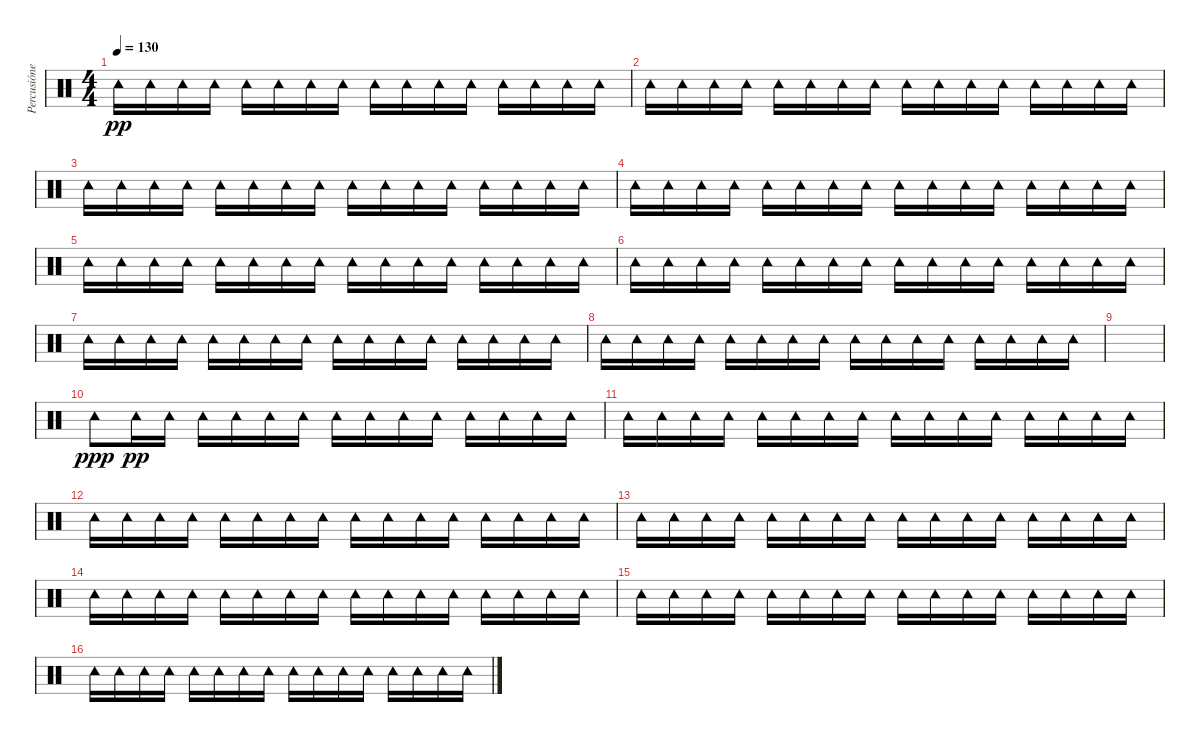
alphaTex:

\track ("Percusiónes" "Percusióne") {instrument percussion}
\staff {score}
\articulation defaults
\ts (4 4)
\tempo 130
\clef neutral
\ks c "Tambourine (hit)".16{dy pp} "Tambourine (hit)".16 "Tambourine (hit)".16 "Tambourine (hit)".16 "Tambourine (hit)".16 "Tambourine (hit)".16 "Tambourine (hit)".16 "Tambourine (hit)".16 "Tambourine (hit)".16 "Tambourine (hit)".16 "Tambourine (hit)".16 "Tambourine (hit)".16 "Tambourine (hit)".16 "Tambourine (hit)".16 "Tambourine (hit)".16 "Tambourine (hit)".16
|
"Tambourine (hit)".16 "Tambourine (hit)".16 "Tambourine (hit)".16 "Tambourine (hit)".16 "Tambourine (hit)".16 "Tambourine (hit)".16 "Tambourine (hit)".16 "Tambourine (hit)".16 "Tambourine (hit)".16 "Tambourine (hit)".16 "Tambourine (hit)".16 "Tambourine (hit)".16 "Tambourine (hit)".16 "Tambourine (hit)".16 "Tambourine (hit)".16 "Tambourine (hit)".16 |
"Tambourine (hit)".16 "Tambourine (hit)".16 "Tambourine (hit)".16 "Tambourine (hit)".16 "Tambourine (hit)".16 "Tambourine (hit)".16 "Tambourine (hit)".16 "Tambourine (hit)".16 "Tambourine (hit)".16 "Tambourine (hit)".16 "Tambourine (hit)".16 "Tambourine (hit)".16 "Tambourine (hit)".16 "Tambourine (hit)".16 "Tambourine (hit)".16 "Tambourine (hit)".16 |
"Tambourine (hit)".16 "Tambourine (hit)".16 "Tambourine (hit)".16 "Tambourine (hit)".16 "Tambourine (hit)".16 "Tambourine (hit)".16 "Tambourine (hit)".16 "Tambourine (hit)".16 "Tambourine (hit)".16 "Tambourine (hit)".16 "Tambourine (hit)".16 "Tambourine (hit)".16 "Tambourine (hit)".16 "Tambourine (hit)".16 "Tambourine (hit)".16 "Tambourine (hit)".16 |
"Tambourine (hit)".16 "Tambourine (hit)".16 "Tambourine (hit)".16 "Tambourine (hit)".16 "Tambourine (hit)".16 "Tambourine (hit)".16 "Tambourine (hit)".16 "Tambourine (hit)".16 "Tambourine (hit)".16 "Tambourine (hit)".16 "Tambourine (hit)".16 "Tambourine (hit)".16 "Tambourine (hit)".16 "Tambourine (hit)".16 "Tambourine (hit)".16 "Tambourine (hit)".16 |
"Tambourine (hit)".16 "Tambourine (hit)".16 "Tambourine (hit)".16 "Tambourine (hit)".16 "Tambourine (hit)".16 "Tambourine (hit)".16 "Tambourine (hit)".16 "Tambourine (hit)".16 "Tambourine (hit)".16 "Tambourine (hit)".16 "Tambourine (hit)".16 "Tambourine (hit)".16 "Tambourine (hit)".16 "Tambourine (hit)".16 "Tambourine (hit)".16 "Tambourine (hit)".16 |
"Tambourine (hit)".16 "Tambourine (hit)".16 "Tambourine (hit)".16 "Tambourine (hit)".16 "Tambourine (hit)".16 "Tambourine (hit)".16 "Tambourine (hit)".16 "Tambourine (hit)".16 "Tambourine (hit)".16 "Tambourine (hit)".16 "Tambourine (hit)".16 "Tambourine (hit)".16 "Tambourine (hit)".16 "Tambourine (hit)".16 "Tambourine (hit)".16 "Tambourine (hit)".16 |
"Tambourine (hit)".16 "Tambourine (hit)".16 "Tambourine (hit)".16 "Tambourine (hit)".16 "Tambourine (hit)".16 "Tambourine (hit)".16 "Tambourine (hit)".16 "Tambourine (hit)".16 "Tambourine (hit)".16 "Tambourine (hit)".16 "Tambourine (hit)".16 "Tambourine (hit)".16 "Tambourine (hit)".16 "Tambourine (hit)".16 "Tambourine (hit)".16 "Tambourine (hit)".16 |
|
"Tambourine (hit)".8{dy ppp} "Tambourine (hit)".16{dy pp} "Tambourine (hit)".16 "Tambourine (hit)".16 "Tambourine (hit)".16 "Tambourine (hit)".16 "Tambourine (hit)".16 "Tambourine (hit)".16 "Tambourine (hit)".16 "Tambourine (hit)".16 "Tambourine (hit)".16 "Tambourine (hit)".16 "Tambourine (hit)".16 "Tambourine (hit)".16 "Tambourine (hit)".16 |
"Tambourine (hit)".16 "Tambourine (hit)".16 "Tambourine (hit)".16 "Tambourine (hit)".16 "Tambourine (hit)".16 "Tambourine (hit)".16 "Tambourine (hit)".16 "Tambourine (hit)".16 "Tambourine (hit)".16 "Tambourine (hit)".16 "Tambourine (hit)".16 "Tambourine (hit)".16 "Tambourine (hit)".16 "Tambourine (hit)".16 "Tambourine (hit)".16 "Tambourine (hit)".16 |
"Tambourine (hit)".16 "Tambourine (hit)".16 "Tambourine (hit)".16 "Tambourine (hit)".16 "Tambourine (hit)".16 "Tambourine (hit)".16 "Tambourine (hit)".16 "Tambourine (hit)".16 "Tambourine (hit)".16 "Tambourine (hit)".16 "Tambourine (hit)".16 "Tambourine (hit)".16 "Tambourine (hit)".16 "Tambourine (hit)".16 "Tambourine (hit)".16 "Tambourine (hit)".16 |
"Tambourine (hit)".16 "Tambourine (hit)".16 "Tambourine (hit)".16 "Tambourine (hit)".16 "Tambourine (hit)".16 "Tambourine (hit)".16 "Tambourine (hit)".16 "Tambourine (hit)".16 "Tambourine (hit)".16 "Tambourine (hit)".16 "Tambourine (hit)".16 "Tambourine (hit)".16 "Tambourine (hit)".16 "Tambourine (hit)".16 "Tambourine (hit)".16 "Tambourine (hit)".16 |
"Tambourine (hit)".16 "Tambourine (hit)".16 "Tambourine (hit)".16 "Tambourine (hit)".16 "Tambourine (hit)".16 "Tambourine (hit)".16 "Tambourine (hit)".16 "Tambourine (hit)".16 "Tambourine (hit)".16 "Tambourine (hit)".16 "Tambourine (hit)".16 "Tambourine (hit)".16 "Tambourine (hit)".16 "Tambourine (hit)".16 "Tambourine (hit)".16 "Tambourine (hit)".16 |
"Tambourine (hit)".16 "Tambourine (hit)".16 "Tambourine (hit)".16 "Tambourine (hit)".16 "Tambourine (hit)".16 "Tambourine (hit)".16 "Tambourine (hit)".16 "Tambourine (hit)".16 "Tambourine (hit)".16 "Tambourine (hit)".16 "Tambourine (hit)".16 "Tambourine (hit)".16 "Tambourine (hit)".16 "Tambourine (hit)".16 "Tambourine (hit)".16 "Tambourine (hit)".16 |
"Tambourine (hit)".16 "Tambourine (hit)".16 "Tambourine (hit)".16 "Tambourine (hit)".16 "Tambourine (hit)".16 "Tambourine (hit)".16 "Tambourine (hit)".16 "Tambourine (hit)".16 "Tambourine (hit)".16 "Tambourine (hit)".16 "Tambourine (hit)".16 "Tambourine (hit)".16 "Tambourine (hit)".16 "Tambourine (hit)".16 "Tambourine (hit)".16 "Tambourine (hit)".16
